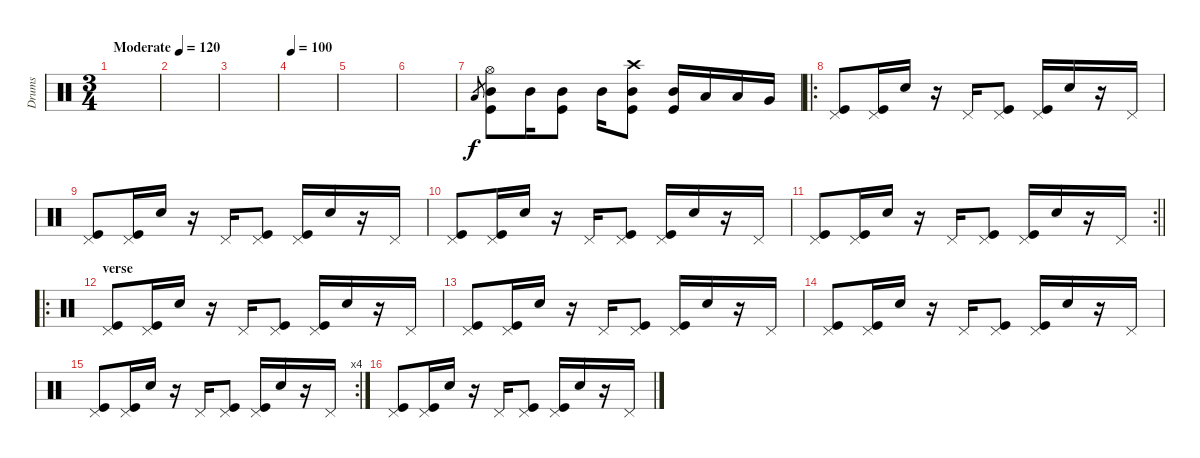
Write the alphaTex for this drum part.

\track ("Drums" "Drums") {instrument percussion}
\staff {score}
\articulation defaults
\ts (3 4)
\tempo (120 "Moderate")
\clef neutral
\ks c
|
|
|
\tempo 100
|
|
|
"Low Tom (hit)".8{gr} ("Hi-Hat (open)" "Mid Tom (hit)" "Kick (hit)").8 "Mid Tom (hit)".16 ("Mid Tom (hit)" "Kick (hit)").8 "Mid Tom (hit)".16 ("Crash high (hit)" "Mid Tom (hit)" "Kick (hit)").8 ("Mid Tom (hit)" "Kick (hit)").16 "Low Tom (hit)".16 "Low Tom (hit)".16 "Very Low Tom (hit)".16 |
\ro
("Pedal Hi-Hat (hit)" "Kick (hit)").8 ("Pedal Hi-Hat (hit)" "Kick (hit)").16 "Snare (hit) 2".16 r.16 "Pedal Hi-Hat (hit)".16 ("Pedal Hi-Hat (hit)" "Kick (hit)").8 ("Pedal Hi-Hat (hit)" "Kick (hit)").16 "Snare (hit) 2".16 r.16 "Pedal Hi-Hat (hit)".16 |
("Pedal Hi-Hat (hit)" "Kick (hit)").8 ("Pedal Hi-Hat (hit)" "Kick (hit)").16 "Snare (hit) 2".16 r.16 "Pedal Hi-Hat (hit)".16 ("Pedal Hi-Hat (hit)" "Kick (hit)").8 ("Pedal Hi-Hat (hit)" "Kick (hit)").16 "Snare (hit) 2".16 r.16 "Pedal Hi-Hat (hit)".16 |
("Pedal Hi-Hat (hit)" "Kick (hit)").8 ("Pedal Hi-Hat (hit)" "Kick (hit)").16 "Snare (hit) 2".16 r.16 "Pedal Hi-Hat (hit)".16 ("Pedal Hi-Hat (hit)" "Kick (hit)").8 ("Pedal Hi-Hat (hit)" "Kick (hit)").16 "Snare (hit) 2".16 r.16 "Pedal Hi-Hat (hit)".16 |
\rc 2
\barLineRight lightlight
("Pedal Hi-Hat (hit)" "Kick (hit)").8 ("Pedal Hi-Hat (hit)" "Kick (hit)").16 "Snare (hit) 2".16 r.16 "Pedal Hi-Hat (hit)".16 ("Pedal Hi-Hat (hit)" "Kick (hit)").8 ("Pedal Hi-Hat (hit)" "Kick (hit)").16 "Snare (hit) 2".16 r.16 "Pedal Hi-Hat (hit)".16 |
\ro
\section ("" "verse")
("Pedal Hi-Hat (hit)" "Kick (hit)").8 ("Pedal Hi-Hat (hit)" "Kick (hit)").16 "Snare (hit) 2".16 r.16 "Pedal Hi-Hat (hit)".16 ("Pedal Hi-Hat (hit)" "Kick (hit)").8 ("Pedal Hi-Hat (hit)" "Kick (hit)").16 "Snare (hit) 2".16 r.16 "Pedal Hi-Hat (hit)".16 |
("Pedal Hi-Hat (hit)" "Kick (hit)").8 ("Pedal Hi-Hat (hit)" "Kick (hit)").16 "Snare (hit) 2".16 r.16 "Pedal Hi-Hat (hit)".16 ("Pedal Hi-Hat (hit)" "Kick (hit)").8 ("Pedal Hi-Hat (hit)" "Kick (hit)").16 "Snare (hit) 2".16 r.16 "Pedal Hi-Hat (hit)".16 |
("Pedal Hi-Hat (hit)" "Kick (hit)").8 ("Pedal Hi-Hat (hit)" "Kick (hit)").16 "Snare (hit) 2".16 r.16 "Pedal Hi-Hat (hit)".16 ("Pedal Hi-Hat (hit)" "Kick (hit)").8 ("Pedal Hi-Hat (hit)" "Kick (hit)").16 "Snare (hit) 2".16 r.16 "Pedal Hi-Hat (hit)".16 |
\rc 4
("Pedal Hi-Hat (hit)" "Kick (hit)").8 ("Pedal Hi-Hat (hit)" "Kick (hit)").16 "Snare (hit) 2".16 r.16 "Pedal Hi-Hat (hit)".16 ("Pedal Hi-Hat (hit)" "Kick (hit)").8 ("Pedal Hi-Hat (hit)" "Kick (hit)").16 "Snare (hit) 2".16 r.16 "Pedal Hi-Hat (hit)".16 |
("Pedal Hi-Hat (hit)" "Kick (hit)").8 ("Pedal Hi-Hat (hit)" "Kick (hit)").16 "Snare (hit) 2".16 r.16 "Pedal Hi-Hat (hit)".16 ("Pedal Hi-Hat (hit)" "Kick (hit)").8 ("Pedal Hi-Hat (hit)" "Kick (hit)").16 "Snare (hit) 2".16 r.16 "Pedal Hi-Hat (hit)".16
